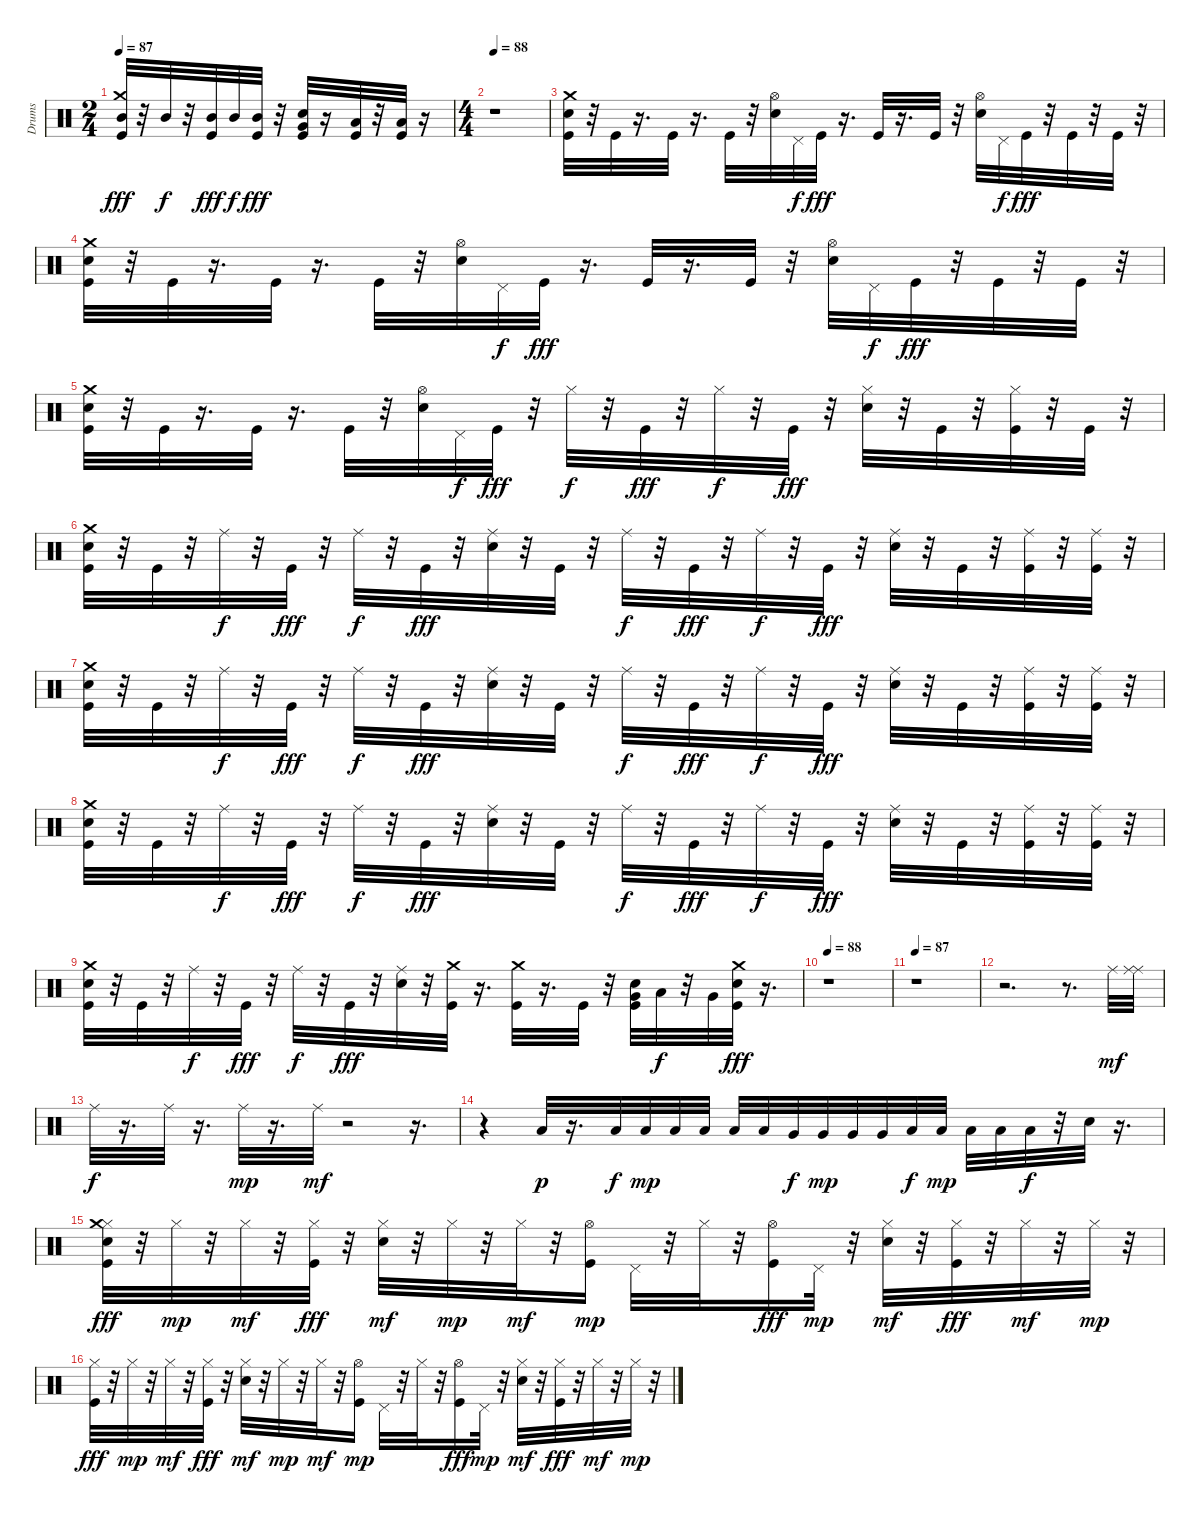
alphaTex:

\track ("Drums" "Drums") {instrument percussion}
\staff {score}
\articulation defaults
\ts (2 4)
\tempo 87
\clef neutral
\ks c
("Mid Tom (hit)" "Crash medium (hit)" "Kick (hit)").32{dy fff} r.32 "Mid Tom (hit)".32{dy f} r.32 ("Mid Tom (hit)" "Kick (hit)").32{dy fff} "Mid Tom (hit)".32{dy f} ("Mid Tom (hit)" "Kick (hit)").32{dy fff} r.32 ("Kick (hit)" "Electric Snare (hit)" "Very Low Tom (hit)").32 r.16 ("Kick (hit)" "Low Floor Tom (hit)").32 r.32 ("Kick (hit)" "Low Floor Tom (hit)").32 r.16 |
\ts (4 4)
\tempo 88
r.1 |
("Kick (hit)" "Electric Snare (hit)" "Crash medium (hit)").32 r.32 "Kick (hit)".32 r.16{d} "Kick (hit)".32 r.16{d} "Kick (hit)".32 r.32 ("Hi-Hat (open)" "Electric Snare (hit)").32 "Pedal Hi-Hat (hit)".32{dy f} "Kick (hit)".32{dy fff} r.16{d} "Kick (hit)".32 r.16{d} "Kick (hit)".32 r.32 ("Hi-Hat (open)" "Electric Snare (hit)").32 "Pedal Hi-Hat (hit)".32{dy f} "Kick (hit)".32{dy fff} r.32 "Kick (hit)".32 r.32 "Kick (hit)".32 r.32 |
("Kick (hit)" "Electric Snare (hit)" "Crash medium (hit)").32 r.32 "Kick (hit)".32 r.16{d} "Kick (hit)".32 r.16{d} "Kick (hit)".32 r.32 ("Hi-Hat (open)" "Electric Snare (hit)").32 "Pedal Hi-Hat (hit)".32{dy f} "Kick (hit)".32{dy fff} r.16{d} "Kick (hit)".32 r.16{d} "Kick (hit)".32 r.32 ("Hi-Hat (open)" "Electric Snare (hit)").32 "Pedal Hi-Hat (hit)".32{dy f} "Kick (hit)".32{dy fff} r.32 "Kick (hit)".32 r.32 "Kick (hit)".32 r.32 |
("Kick (hit)" "Electric Snare (hit)" "Crash medium (hit)").32 r.32 "Kick (hit)".32 r.16{d} "Kick (hit)".32 r.16{d} "Kick (hit)".32 r.32 ("Hi-Hat (open)" "Electric Snare (hit)").32 "Pedal Hi-Hat (hit)".32{dy f} "Kick (hit)".32{dy fff} r.32 "Hi-Hat (closed)".32{dy f} r.32 "Kick (hit)".32{dy fff} r.32 "Hi-Hat (closed)".32{dy f} r.32 "Kick (hit)".32{dy fff} r.32 ("Hi-Hat (closed)" "Electric Snare (hit)").32 r.32 "Kick (hit)".32 r.32 ("Hi-Hat (closed)" "Kick (hit)").32 r.32 "Kick (hit)".32 r.32 |
("Kick (hit)" "Electric Snare (hit)" "Crash medium (hit)").32 r.32 "Kick (hit)".32 r.32 "Ride (middle)".32{dy f} r.32 "Kick (hit)".32{dy fff} r.32 "Ride (middle)".32{dy f} r.32 "Kick (hit)".32{dy fff} r.32 ("Ride (middle)" "Electric Snare (hit)").32 r.32 "Kick (hit)".32 r.32 "Ride (middle)".32{dy f} r.32 "Kick (hit)".32{dy fff} r.32 "Ride (middle)".32{dy f} r.32 "Kick (hit)".32{dy fff} r.32 ("Ride (middle)" "Electric Snare (hit)").32 r.32 "Kick (hit)".32 r.32 ("Ride (middle)" "Kick (hit)").32 r.32 ("Ride (middle)" "Kick (hit)").32 r.32 |
("Kick (hit)" "Electric Snare (hit)" "Crash medium (hit)").32 r.32 "Kick (hit)".32 r.32 "Ride (middle)".32{dy f} r.32 "Kick (hit)".32{dy fff} r.32 "Ride (middle)".32{dy f} r.32 "Kick (hit)".32{dy fff} r.32 ("Ride (middle)" "Electric Snare (hit)").32 r.32 "Kick (hit)".32 r.32 "Ride (middle)".32{dy f} r.32 "Kick (hit)".32{dy fff} r.32 "Ride (middle)".32{dy f} r.32 "Kick (hit)".32{dy fff} r.32 ("Ride (middle)" "Electric Snare (hit)").32 r.32 "Kick (hit)".32 r.32 ("Ride (middle)" "Kick (hit)").32 r.32 ("Ride (middle)" "Kick (hit)").32 r.32 |
("Kick (hit)" "Electric Snare (hit)" "Crash medium (hit)").32 r.32 "Kick (hit)".32 r.32 "Ride (middle)".32{dy f} r.32 "Kick (hit)".32{dy fff} r.32 "Ride (middle)".32{dy f} r.32 "Kick (hit)".32{dy fff} r.32 ("Ride (middle)" "Electric Snare (hit)").32 r.32 "Kick (hit)".32 r.32 "Ride (middle)".32{dy f} r.32 "Kick (hit)".32{dy fff} r.32 "Ride (middle)".32{dy f} r.32 "Kick (hit)".32{dy fff} r.32 ("Ride (middle)" "Electric Snare (hit)").32 r.32 "Kick (hit)".32 r.32 ("Ride (middle)" "Kick (hit)").32 r.32 ("Ride (middle)" "Kick (hit)").32 r.32 |
("Kick (hit)" "Electric Snare (hit)" "Crash medium (hit)").32 r.32 "Kick (hit)".32 r.32 "Ride (middle)".32{dy f} r.32 "Kick (hit)".32{dy fff} r.32 "Ride (middle)".32{dy f} r.32 "Kick (hit)".32{dy fff} r.32 ("Ride (middle)" "Electric Snare (hit)").32 r.32 ("Crash medium (hit)" "Kick (hit)").32 r.16{d} ("Crash medium (hit)" "Kick (hit)").32 r.16{d} "Kick (hit)".32 r.32 ("Very Low Tom (hit)" "Kick (hit)" "Electric Snare (hit)").32 "Low Tom (hit)".32{dy f} r.32 "Very Low Tom (hit)".32 ("Electric Snare (hit)" "Kick (hit)" "Crash medium (hit)").32{dy fff} r.16{d} |
\tempo 88
r.1 |
\tempo 87
r.1 |
r.2{d} r.8{d} "Ride (middle)".32{dy mf} ("Ride (middle)" "Ride (middle)").32 |
"Ride (middle)".32{dy f} r.16{d} "Ride (middle)".32 r.16{d} "Ride (middle)".32{dy mp} r.16{d} "Ride (middle)".32{dy mf} r.2 r.16{d} |
r.4 "Low Floor Tom (hit)".32{dy p} r.16{d} "Low Floor Tom (hit)".32{dy f} "Low Floor Tom (hit)".32{dy mp} "Low Floor Tom (hit)".32 "Low Floor Tom (hit)".32 "Low Floor Tom (hit)".32 "Low Floor Tom (hit)".32 "Very Low Tom (hit)".32{dy f} "Very Low Tom (hit)".32{dy mp} "Very Low Tom (hit)".32 "Very Low Tom (hit)".32 "Low Tom (hit)".32{dy f} "Low Tom (hit)".32{dy mp} "Low Tom (hit)".32 "Low Tom (hit)".32 "Low Tom (hit)".32{dy f} r.32 "Electric Snare (hit)".32 r.16{d} |
("Hi-Hat (closed)" "Electric Snare (hit)" "Kick (hit)" "Crash medium (hit)").32{dy fff} r.32 "Hi-Hat (closed)".32{dy mp} r.32 "Hi-Hat (closed)".32{dy mf} r.32 ("Hi-Hat (closed)" "Kick (hit)").32{dy fff} r.32 ("Hi-Hat (closed)" "Electric Snare (hit)").32{dy mf} r.32 "Hi-Hat (closed)".32{dy mp} r.32 "Hi-Hat (closed)".32{dy mf} r.32 ("Kick (hit)" "Hi-Hat (open)").16{dy mp} "Pedal Hi-Hat (hit)".32 r.32 "Hi-Hat (closed)".32 r.32 ("Hi-Hat (open)" "Kick (hit)").16{dy fff} "Pedal Hi-Hat (hit)".32{dy mp} r.32 ("Hi-Hat (closed)" "Electric Snare (hit)").32{dy mf} r.32 ("Hi-Hat (closed)" "Kick (hit)").32{dy fff} r.32 "Hi-Hat (closed)".32{dy mf} r.32 "Hi-Hat (closed)".32{dy mp} r.32 |
("Hi-Hat (closed)" "Kick (hit)").32{dy fff} r.32 "Hi-Hat (closed)".32{dy mp} r.32 "Hi-Hat (closed)".32{dy mf} r.32 ("Hi-Hat (closed)" "Kick (hit)").32{dy fff} r.32 ("Hi-Hat (closed)" "Electric Snare (hit)").32{dy mf} r.32 "Hi-Hat (closed)".32{dy mp} r.32 "Hi-Hat (closed)".32{dy mf} r.32 ("Kick (hit)" "Hi-Hat (open)").16{dy mp} "Pedal Hi-Hat (hit)".32 r.32 "Hi-Hat (closed)".32 r.32 ("Hi-Hat (open)" "Kick (hit)").16{dy fff} "Pedal Hi-Hat (hit)".32{dy mp} r.32 ("Hi-Hat (closed)" "Electric Snare (hit)").32{dy mf} r.32 ("Hi-Hat (closed)" "Kick (hit)").32{dy fff} r.32 "Hi-Hat (closed)".32{dy mf} r.32 "Hi-Hat (closed)".32{dy mp} r.32
